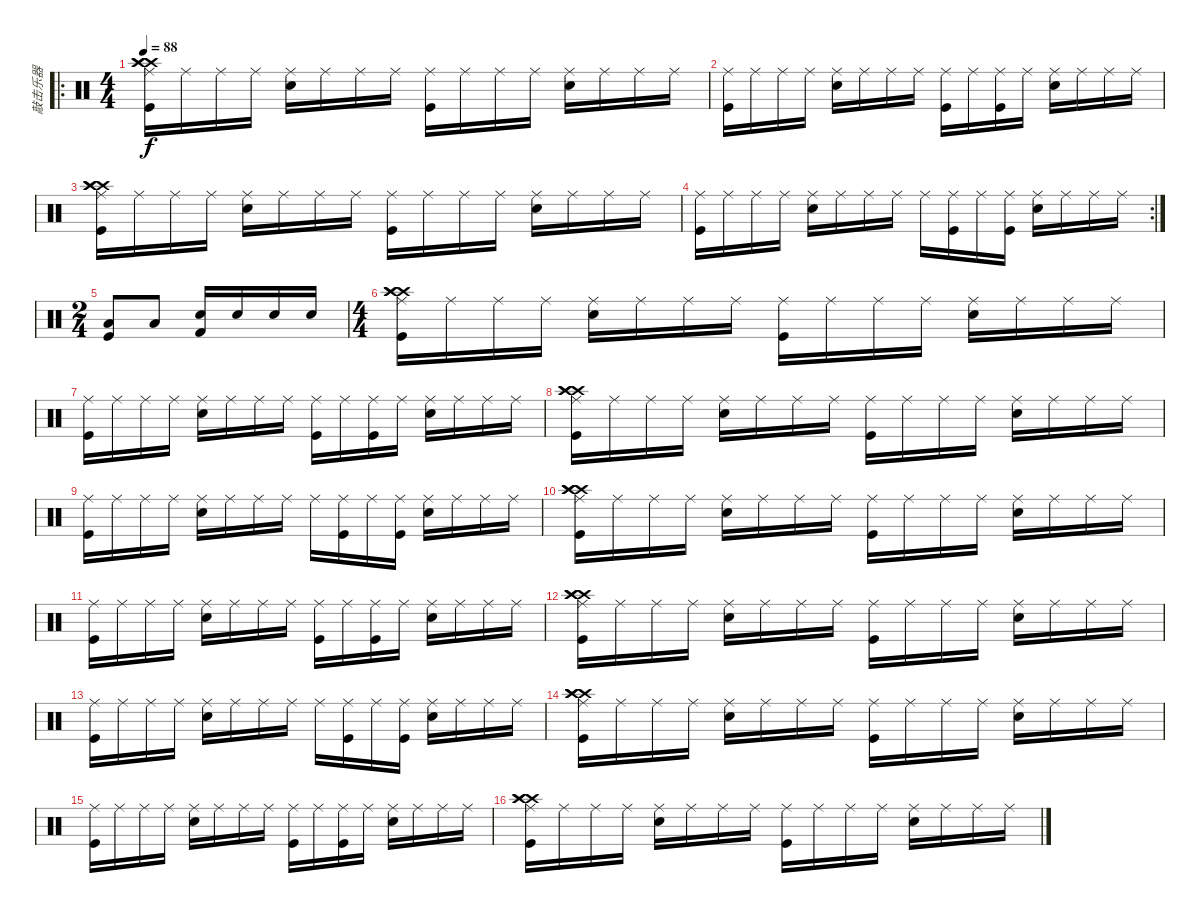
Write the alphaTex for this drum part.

\track ("敲击乐器" "敲击乐器") {instrument percussion}
\staff {score}
\articulation defaults
\ro
\ts (4 4)
\tempo 88
\clef neutral
\ks c
("Ride (middle)" "Kick (hit)" "Crash high (hit)" "Crash high (hit)" "Crash high (hit)").16{dy f} "Ride (middle)".16 "Ride (middle)".16 "Ride (middle)".16 ("Ride (middle)" "Electric Snare (hit)").16 "Ride (middle)".16 "Ride (middle)".16 "Ride (middle)".16 ("Ride (middle)" "Kick (hit)").16 "Ride (middle)".16 "Ride (middle)".16 "Ride (middle)".16 ("Ride (middle)" "Electric Snare (hit)").16 "Ride (middle)".16 "Ride (middle)".16 "Ride (middle)".16 |
("Ride (middle)" "Kick (hit)").16 "Ride (middle)".16 "Ride (middle)".16 "Ride (middle)".16 ("Ride (middle)" "Electric Snare (hit)").16 "Ride (middle)".16 "Ride (middle)".16 "Ride (middle)".16 ("Ride (middle)" "Kick (hit)").16 "Ride (middle)".16 ("Ride (middle)" "Kick (hit)").16 "Ride (middle)".16 ("Ride (middle)" "Electric Snare (hit)").16 "Ride (middle)".16 "Ride (middle)".16 "Ride (middle)".16 |
("Ride (middle)" "Kick (hit)" "Crash high (hit)" "Crash high (hit)" "Crash high (hit)").16 "Ride (middle)".16 "Ride (middle)".16 "Ride (middle)".16 ("Ride (middle)" "Electric Snare (hit)").16 "Ride (middle)".16 "Ride (middle)".16 "Ride (middle)".16 ("Ride (middle)" "Kick (hit)").16 "Ride (middle)".16 "Ride (middle)".16 "Ride (middle)".16 ("Ride (middle)" "Electric Snare (hit)").16 "Ride (middle)".16 "Ride (middle)".16 "Ride (middle)".16 |
\rc 2
("Ride (middle)" "Kick (hit)").16 "Ride (middle)".16 "Ride (middle)".16 "Ride (middle)".16 ("Ride (middle)" "Electric Snare (hit)").16 "Ride (middle)".16 "Ride (middle)".16 "Ride (middle)".16 "Ride (middle)".16 ("Ride (middle)" "Kick (hit)").16 "Ride (middle)".16 ("Ride (middle)" "Kick (hit)").16 ("Ride (middle)" "Electric Snare (hit)").16 "Ride (middle)".16 "Ride (middle)".16 "Ride (middle)".16 |
\ts (2 4)
("Low Floor Tom (hit)" "Kick (hit)").8 "Low Floor Tom (hit)".8 ("Metronome (bell)" "Kick (hit) 2").16 "Metronome (bell)".16 "Metronome (bell)".16 "Metronome (bell)".16 |
\ts (4 4)
("Ride (middle)" "Kick (hit)" "Crash high (hit)" "Crash high (hit)" "Crash high (hit)").16 "Ride (middle)".16 "Ride (middle)".16 "Ride (middle)".16 ("Ride (middle)" "Electric Snare (hit)").16 "Ride (middle)".16 "Ride (middle)".16 "Ride (middle)".16 ("Ride (middle)" "Kick (hit)").16 "Ride (middle)".16 "Ride (middle)".16 "Ride (middle)".16 ("Ride (middle)" "Electric Snare (hit)").16 "Ride (middle)".16 "Ride (middle)".16 "Ride (middle)".16 |
("Ride (middle)" "Kick (hit)").16 "Ride (middle)".16 "Ride (middle)".16 "Ride (middle)".16 ("Ride (middle)" "Electric Snare (hit)").16 "Ride (middle)".16 "Ride (middle)".16 "Ride (middle)".16 ("Ride (middle)" "Kick (hit)").16 "Ride (middle)".16 ("Ride (middle)" "Kick (hit)").16 "Ride (middle)".16 ("Ride (middle)" "Electric Snare (hit)").16 "Ride (middle)".16 "Ride (middle)".16 "Ride (middle)".16 |
("Ride (middle)" "Kick (hit)" "Crash high (hit)" "Crash high (hit)" "Crash high (hit)").16 "Ride (middle)".16 "Ride (middle)".16 "Ride (middle)".16 ("Ride (middle)" "Electric Snare (hit)").16 "Ride (middle)".16 "Ride (middle)".16 "Ride (middle)".16 ("Ride (middle)" "Kick (hit)").16 "Ride (middle)".16 "Ride (middle)".16 "Ride (middle)".16 ("Ride (middle)" "Electric Snare (hit)").16 "Ride (middle)".16 "Ride (middle)".16 "Ride (middle)".16 |
("Ride (middle)" "Kick (hit)").16 "Ride (middle)".16 "Ride (middle)".16 "Ride (middle)".16 ("Ride (middle)" "Electric Snare (hit)").16 "Ride (middle)".16 "Ride (middle)".16 "Ride (middle)".16 "Ride (middle)".16 ("Ride (middle)" "Kick (hit)").16 "Ride (middle)".16 ("Ride (middle)" "Kick (hit)").16 ("Ride (middle)" "Electric Snare (hit)").16 "Ride (middle)".16 "Ride (middle)".16 "Ride (middle)".16 |
("Ride (middle)" "Kick (hit)" "Crash high (hit)" "Crash high (hit)" "Crash high (hit)").16 "Ride (middle)".16 "Ride (middle)".16 "Ride (middle)".16 ("Ride (middle)" "Electric Snare (hit)").16 "Ride (middle)".16 "Ride (middle)".16 "Ride (middle)".16 ("Ride (middle)" "Kick (hit)").16 "Ride (middle)".16 "Ride (middle)".16 "Ride (middle)".16 ("Ride (middle)" "Electric Snare (hit)").16 "Ride (middle)".16 "Ride (middle)".16 "Ride (middle)".16 |
("Ride (middle)" "Kick (hit)").16 "Ride (middle)".16 "Ride (middle)".16 "Ride (middle)".16 ("Ride (middle)" "Electric Snare (hit)").16 "Ride (middle)".16 "Ride (middle)".16 "Ride (middle)".16 ("Ride (middle)" "Kick (hit)").16 "Ride (middle)".16 ("Ride (middle)" "Kick (hit)").16 "Ride (middle)".16 ("Ride (middle)" "Electric Snare (hit)").16 "Ride (middle)".16 "Ride (middle)".16 "Ride (middle)".16 |
("Ride (middle)" "Kick (hit)" "Crash high (hit)" "Crash high (hit)" "Crash high (hit)").16 "Ride (middle)".16 "Ride (middle)".16 "Ride (middle)".16 ("Ride (middle)" "Electric Snare (hit)").16 "Ride (middle)".16 "Ride (middle)".16 "Ride (middle)".16 ("Ride (middle)" "Kick (hit)").16 "Ride (middle)".16 "Ride (middle)".16 "Ride (middle)".16 ("Ride (middle)" "Electric Snare (hit)").16 "Ride (middle)".16 "Ride (middle)".16 "Ride (middle)".16 |
("Ride (middle)" "Kick (hit)").16 "Ride (middle)".16 "Ride (middle)".16 "Ride (middle)".16 ("Ride (middle)" "Electric Snare (hit)").16 "Ride (middle)".16 "Ride (middle)".16 "Ride (middle)".16 "Ride (middle)".16 ("Ride (middle)" "Kick (hit)").16 "Ride (middle)".16 ("Ride (middle)" "Kick (hit)").16 ("Ride (middle)" "Electric Snare (hit)").16 "Ride (middle)".16 "Ride (middle)".16 "Ride (middle)".16 |
("Ride (middle)" "Kick (hit)" "Crash high (hit)" "Crash high (hit)" "Crash high (hit)").16 "Ride (middle)".16 "Ride (middle)".16 "Ride (middle)".16 ("Ride (middle)" "Electric Snare (hit)").16 "Ride (middle)".16 "Ride (middle)".16 "Ride (middle)".16 ("Ride (middle)" "Kick (hit)").16 "Ride (middle)".16 "Ride (middle)".16 "Ride (middle)".16 ("Ride (middle)" "Electric Snare (hit)").16 "Ride (middle)".16 "Ride (middle)".16 "Ride (middle)".16 |
("Ride (middle)" "Kick (hit)").16 "Ride (middle)".16 "Ride (middle)".16 "Ride (middle)".16 ("Ride (middle)" "Electric Snare (hit)").16 "Ride (middle)".16 "Ride (middle)".16 "Ride (middle)".16 ("Ride (middle)" "Kick (hit)").16 "Ride (middle)".16 ("Ride (middle)" "Kick (hit)").16 "Ride (middle)".16 ("Ride (middle)" "Electric Snare (hit)").16 "Ride (middle)".16 "Ride (middle)".16 "Ride (middle)".16 |
("Ride (middle)" "Kick (hit)" "Crash high (hit)" "Crash high (hit)" "Crash high (hit)").16 "Ride (middle)".16 "Ride (middle)".16 "Ride (middle)".16 ("Ride (middle)" "Electric Snare (hit)").16 "Ride (middle)".16 "Ride (middle)".16 "Ride (middle)".16 ("Ride (middle)" "Kick (hit)").16 "Ride (middle)".16 "Ride (middle)".16 "Ride (middle)".16 ("Ride (middle)" "Electric Snare (hit)").16 "Ride (middle)".16 "Ride (middle)".16 "Ride (middle)".16
